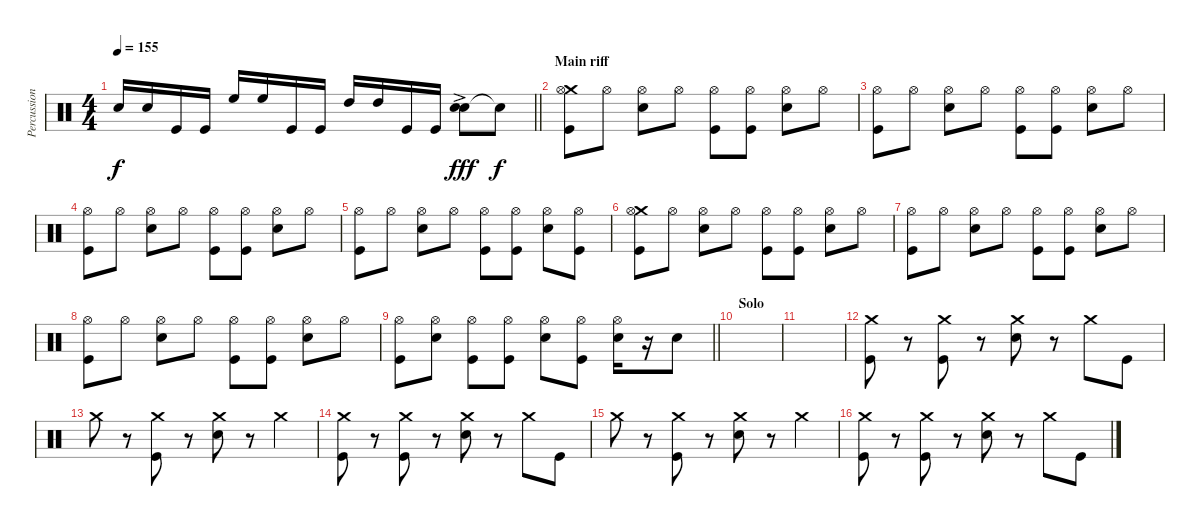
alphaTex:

\track ("Percussion" "Percussion") {instrument percussion}
\staff {score}
\articulation defaults
\ts (4 4)
\tempo 155
\clef neutral
\barLineRight lightlight
\ks c "Electric Snare (hit)".16{dy f} "Electric Snare (hit)".16 "Kick (hit)".16 "Kick (hit)".16 "High Floor Tom (hit)".16 "High Floor Tom (hit)".16 "Kick (hit)".16 "Kick (hit)".16 "High Tom (hit)".16 "High Tom (hit)".16 "Kick (hit)".16 "Kick (hit)".16
("Electric Snare (hit)"{ac} "Electric Snare (hit)"{ac}).8{dy fff} "Snare (hit)"{t}.8{dy f} |
\section ("" "Main riff")
("Crash medium (hit)" "Hi-Hat (open)" "Kick (hit)").8 "Hi-Hat (open)".8 ("Hi-Hat (open)" "Electric Snare (hit)").8 "Hi-Hat (open)".8 ("Hi-Hat (open)" "Kick (hit)").8 ("Hi-Hat (open)" "Kick (hit)").8 ("Hi-Hat (open)" "Electric Snare (hit)").8 "Hi-Hat (open)".8 |
("Hi-Hat (open)" "Kick (hit)").8 "Hi-Hat (open)".8 ("Hi-Hat (open)" "Electric Snare (hit)").8 "Hi-Hat (open)".8 ("Hi-Hat (open)" "Kick (hit)").8 ("Hi-Hat (open)" "Kick (hit)").8 ("Hi-Hat (open)" "Electric Snare (hit)").8 "Hi-Hat (open)".8 |
("Hi-Hat (open)" "Kick (hit)").8 "Hi-Hat (open)".8 ("Hi-Hat (open)" "Electric Snare (hit)").8 "Hi-Hat (open)".8 ("Hi-Hat (open)" "Kick (hit)").8 ("Hi-Hat (open)" "Kick (hit)").8 ("Hi-Hat (open)" "Electric Snare (hit)").8 "Hi-Hat (open)".8 |
("Hi-Hat (open)" "Kick (hit)").8 "Hi-Hat (open)".8 ("Hi-Hat (open)" "Electric Snare (hit)").8 "Hi-Hat (open)".8 ("Hi-Hat (open)" "Kick (hit)").8 ("Hi-Hat (open)" "Kick (hit)").8 ("Hi-Hat (open)" "Electric Snare (hit)").8 ("Hi-Hat (open)" "Kick (hit)").8 |
("Crash medium (hit)" "Hi-Hat (open)" "Kick (hit)").8 "Hi-Hat (open)".8 ("Hi-Hat (open)" "Electric Snare (hit)").8 "Hi-Hat (open)".8 ("Hi-Hat (open)" "Kick (hit)").8 ("Hi-Hat (open)" "Kick (hit)").8 ("Hi-Hat (open)" "Electric Snare (hit)").8 "Hi-Hat (open)".8 |
("Hi-Hat (open)" "Kick (hit)").8 "Hi-Hat (open)".8 ("Hi-Hat (open)" "Electric Snare (hit)").8 "Hi-Hat (open)".8 ("Hi-Hat (open)" "Kick (hit)").8 ("Hi-Hat (open)" "Kick (hit)").8 ("Hi-Hat (open)" "Electric Snare (hit)").8 "Hi-Hat (open)".8 |
("Hi-Hat (open)" "Kick (hit)").8 "Hi-Hat (open)".8 ("Hi-Hat (open)" "Electric Snare (hit)").8 "Hi-Hat (open)".8 ("Hi-Hat (open)" "Kick (hit)").8 ("Hi-Hat (open)" "Kick (hit)").8 ("Hi-Hat (open)" "Electric Snare (hit)").8 "Hi-Hat (open)".8 |
\barLineRight lightlight
("Hi-Hat (open)" "Kick (hit)").8 ("Hi-Hat (open)" "Electric Snare (hit)").8 ("Hi-Hat (open)" "Kick (hit)").8 ("Hi-Hat (open)" "Kick (hit)").8 ("Hi-Hat (open)" "Electric Snare (hit)").8 ("Hi-Hat (open)" "Kick (hit)").8 ("Hi-Hat (open)" "Electric Snare (hit)").16 r.16 "Electric Snare (hit)".8 |
\section ("" "Solo")
|
|
("Crash medium (hit)" "Kick (hit)").8 r.8 ("Crash medium (hit)" "Kick (hit)").8 r.8 ("Crash medium (hit)" "Electric Snare (hit)").8 r.8 "Crash medium (hit)".8 "Kick (hit)".8 |
"Crash medium (hit)".8 r.8 ("Crash medium (hit)" "Kick (hit)").8 r.8 ("Crash medium (hit)" "Electric Snare (hit)").8 r.8 "Crash medium (hit)".4 |
("Crash medium (hit)" "Kick (hit)").8 r.8 ("Crash medium (hit)" "Kick (hit)").8 r.8 ("Crash medium (hit)" "Electric Snare (hit)").8 r.8 "Crash medium (hit)".8 "Kick (hit)".8 |
"Crash medium (hit)".8 r.8 ("Crash medium (hit)" "Kick (hit)").8 r.8 ("Crash medium (hit)" "Electric Snare (hit)").8 r.8 "Crash medium (hit)".4 |
("Crash medium (hit)" "Kick (hit)").8 r.8 ("Crash medium (hit)" "Kick (hit)").8 r.8 ("Crash medium (hit)" "Electric Snare (hit)").8 r.8 "Crash medium (hit)".8 "Kick (hit)".8
